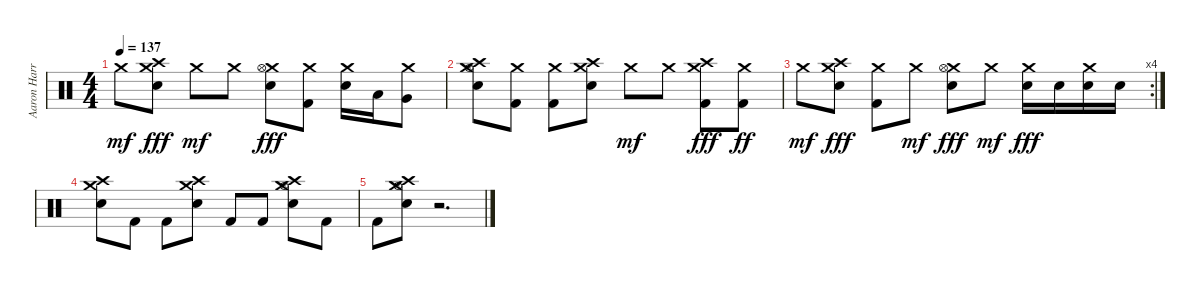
\track ("Aaron Harris" "Aaron Harr") {instrument percussion}
\staff {score}
\articulation defaults
\ts (4 4)
\tempo 137
\clef neutral
\ks c "Crash medium (hit)".8{dy mf}
("Crash medium (hit)" "Crash high (hit)" "Electric Snare (hit)").8{dy fff} "Crash medium (hit)".8{dy mf} "Crash medium (hit)".8 ("Crash medium (hit)" "Hi-Hat (open)" "Electric Snare (hit)").8{dy fff} ("Crash medium (hit)" "Kick (hit) 2").8 ("Crash medium (hit)" "Electric Snare (hit)").16 "Low Tom (hit)".16 ("Crash medium (hit)" "Very Low Tom (hit)").8 |
("Crash medium (hit)" "Crash high (hit)" "Hi-Hat (open)" "Electric Snare (hit)").8 ("Crash medium (hit)" "Kick (hit) 2").8 ("Crash medium (hit)" "Kick (hit) 2").8 ("Crash medium (hit)" "Crash high (hit)" "Electric Snare (hit)").8 "Crash medium (hit)".8{dy mf} "Crash medium (hit)".8 ("Crash medium (hit)" "Crash high (hit)" "Kick (hit) 2").8{dy fff} ("Crash medium (hit)" "Kick (hit) 2").8{dy ff} |
\rc 4 "Crash medium (hit)".8{dy mf}
("Crash medium (hit)" "Crash high (hit)" "Electric Snare (hit)").8{dy fff} ("Crash medium (hit)" "Kick (hit) 2").8 "Crash medium (hit)".8{dy mf} ("Crash medium (hit)" "Hi-Hat (open)" "Electric Snare (hit)").8{dy fff} "Crash medium (hit)".8{dy mf} ("Crash medium (hit)" "Electric Snare (hit)").16{dy fff} "Electric Snare (hit)".16 ("Crash medium (hit)" "Electric Snare (hit)").16 "Electric Snare (hit)".16 |
("Crash medium (hit)" "Crash high (hit)" "Electric Snare (hit)").8 "Kick (hit) 2".8 "Kick (hit) 2".8 ("Crash medium (hit)" "Crash high (hit)" "Electric Snare (hit)").8 "Kick (hit) 2".8 "Kick (hit) 2".8 ("Crash high (hit)" "Crash medium (hit)" "Hi-Hat (open)" "Electric Snare (hit)").8 "Kick (hit) 2".8 |
"Kick (hit) 2".8 ("Crash high (hit)" "Crash medium (hit)" "Hi-Hat (open)" "Electric Snare (hit)").8 r.2{d}
